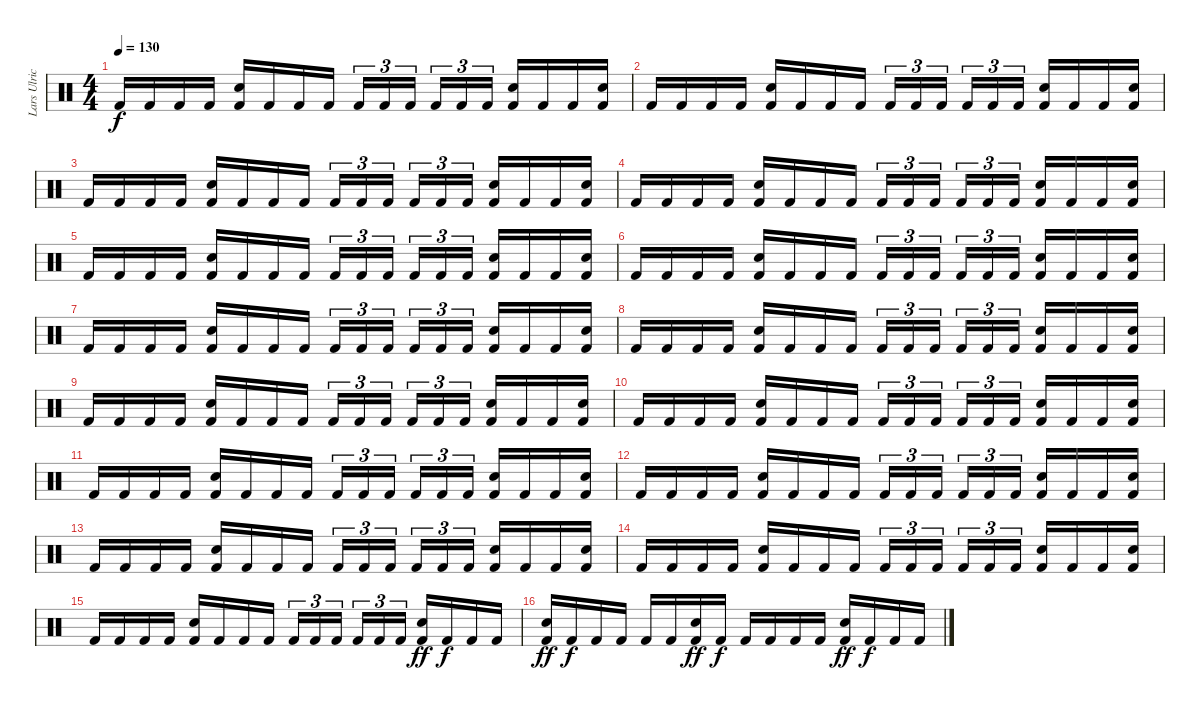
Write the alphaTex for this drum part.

\track ("Lars Ulrich" "Lars Ulric") {instrument percussion}
\staff {score}
\articulation defaults
\ts (4 4)
\tempo 130
\clef neutral
\ks c "Kick (hit) 2".16{dy f} "Kick (hit) 2".16 "Kick (hit) 2".16 "Kick (hit) 2".16
("Kick (hit) 2" "Electric Snare (hit)").16 "Kick (hit) 2".16 "Kick (hit) 2".16 "Kick (hit) 2".16 "Kick (hit) 2".16{tu (3 2)} "Kick (hit) 2".16{tu (3 2)} "Kick (hit) 2".16{tu (3 2) beam splitsecondary} "Kick (hit) 2".16{tu (3 2)} "Kick (hit) 2".16{tu (3 2)} "Kick (hit) 2".16{tu (3 2)} ("Kick (hit) 2" "Electric Snare (hit)").16 "Kick (hit) 2".16 "Kick (hit) 2".16 ("Kick (hit) 2" "Electric Snare (hit)").16 |
"Kick (hit) 2".16 "Kick (hit) 2".16 "Kick (hit) 2".16 "Kick (hit) 2".16 ("Kick (hit) 2" "Electric Snare (hit)").16 "Kick (hit) 2".16 "Kick (hit) 2".16 "Kick (hit) 2".16 "Kick (hit) 2".16{tu (3 2)} "Kick (hit) 2".16{tu (3 2)} "Kick (hit) 2".16{tu (3 2) beam splitsecondary} "Kick (hit) 2".16{tu (3 2)} "Kick (hit) 2".16{tu (3 2)} "Kick (hit) 2".16{tu (3 2)} ("Kick (hit) 2" "Electric Snare (hit)").16 "Kick (hit) 2".16 "Kick (hit) 2".16 ("Kick (hit) 2" "Electric Snare (hit)").16 |
"Kick (hit) 2".16 "Kick (hit) 2".16 "Kick (hit) 2".16 "Kick (hit) 2".16 ("Kick (hit) 2" "Electric Snare (hit)").16 "Kick (hit) 2".16 "Kick (hit) 2".16 "Kick (hit) 2".16 "Kick (hit) 2".16{tu (3 2)} "Kick (hit) 2".16{tu (3 2)} "Kick (hit) 2".16{tu (3 2) beam splitsecondary} "Kick (hit) 2".16{tu (3 2)} "Kick (hit) 2".16{tu (3 2)} "Kick (hit) 2".16{tu (3 2)} ("Kick (hit) 2" "Electric Snare (hit)").16 "Kick (hit) 2".16 "Kick (hit) 2".16 ("Kick (hit) 2" "Electric Snare (hit)").16 |
"Kick (hit) 2".16 "Kick (hit) 2".16 "Kick (hit) 2".16 "Kick (hit) 2".16 ("Kick (hit) 2" "Electric Snare (hit)").16 "Kick (hit) 2".16 "Kick (hit) 2".16 "Kick (hit) 2".16 "Kick (hit) 2".16{tu (3 2)} "Kick (hit) 2".16{tu (3 2)} "Kick (hit) 2".16{tu (3 2) beam splitsecondary} "Kick (hit) 2".16{tu (3 2)} "Kick (hit) 2".16{tu (3 2)} "Kick (hit) 2".16{tu (3 2)} ("Kick (hit) 2" "Electric Snare (hit)").16 "Kick (hit) 2".16 "Kick (hit) 2".16 ("Kick (hit) 2" "Electric Snare (hit)").16 |
"Kick (hit) 2".16 "Kick (hit) 2".16 "Kick (hit) 2".16 "Kick (hit) 2".16 ("Kick (hit) 2" "Electric Snare (hit)").16 "Kick (hit) 2".16 "Kick (hit) 2".16 "Kick (hit) 2".16 "Kick (hit) 2".16{tu (3 2)} "Kick (hit) 2".16{tu (3 2)} "Kick (hit) 2".16{tu (3 2) beam splitsecondary} "Kick (hit) 2".16{tu (3 2)} "Kick (hit) 2".16{tu (3 2)} "Kick (hit) 2".16{tu (3 2)} ("Kick (hit) 2" "Electric Snare (hit)").16 "Kick (hit) 2".16 "Kick (hit) 2".16 ("Kick (hit) 2" "Electric Snare (hit)").16 |
"Kick (hit) 2".16 "Kick (hit) 2".16 "Kick (hit) 2".16 "Kick (hit) 2".16 ("Kick (hit) 2" "Electric Snare (hit)").16 "Kick (hit) 2".16 "Kick (hit) 2".16 "Kick (hit) 2".16 "Kick (hit) 2".16{tu (3 2)} "Kick (hit) 2".16{tu (3 2)} "Kick (hit) 2".16{tu (3 2) beam splitsecondary} "Kick (hit) 2".16{tu (3 2)} "Kick (hit) 2".16{tu (3 2)} "Kick (hit) 2".16{tu (3 2)} ("Kick (hit) 2" "Electric Snare (hit)").16 "Kick (hit) 2".16 "Kick (hit) 2".16 ("Kick (hit) 2" "Electric Snare (hit)").16 |
"Kick (hit) 2".16 "Kick (hit) 2".16 "Kick (hit) 2".16 "Kick (hit) 2".16 ("Kick (hit) 2" "Electric Snare (hit)").16 "Kick (hit) 2".16 "Kick (hit) 2".16 "Kick (hit) 2".16 "Kick (hit) 2".16{tu (3 2)} "Kick (hit) 2".16{tu (3 2)} "Kick (hit) 2".16{tu (3 2) beam splitsecondary} "Kick (hit) 2".16{tu (3 2)} "Kick (hit) 2".16{tu (3 2)} "Kick (hit) 2".16{tu (3 2)} ("Kick (hit) 2" "Electric Snare (hit)").16 "Kick (hit) 2".16 "Kick (hit) 2".16 ("Kick (hit) 2" "Electric Snare (hit)").16 |
"Kick (hit) 2".16 "Kick (hit) 2".16 "Kick (hit) 2".16 "Kick (hit) 2".16 ("Kick (hit) 2" "Electric Snare (hit)").16 "Kick (hit) 2".16 "Kick (hit) 2".16 "Kick (hit) 2".16 "Kick (hit) 2".16{tu (3 2)} "Kick (hit) 2".16{tu (3 2)} "Kick (hit) 2".16{tu (3 2) beam splitsecondary} "Kick (hit) 2".16{tu (3 2)} "Kick (hit) 2".16{tu (3 2)} "Kick (hit) 2".16{tu (3 2)} ("Kick (hit) 2" "Electric Snare (hit)").16 "Kick (hit) 2".16 "Kick (hit) 2".16 ("Kick (hit) 2" "Electric Snare (hit)").16 |
"Kick (hit) 2".16 "Kick (hit) 2".16 "Kick (hit) 2".16 "Kick (hit) 2".16 ("Kick (hit) 2" "Electric Snare (hit)").16 "Kick (hit) 2".16 "Kick (hit) 2".16 "Kick (hit) 2".16 "Kick (hit) 2".16{tu (3 2)} "Kick (hit) 2".16{tu (3 2)} "Kick (hit) 2".16{tu (3 2) beam splitsecondary} "Kick (hit) 2".16{tu (3 2)} "Kick (hit) 2".16{tu (3 2)} "Kick (hit) 2".16{tu (3 2)} ("Kick (hit) 2" "Electric Snare (hit)").16 "Kick (hit) 2".16 "Kick (hit) 2".16 ("Kick (hit) 2" "Electric Snare (hit)").16 |
"Kick (hit) 2".16 "Kick (hit) 2".16 "Kick (hit) 2".16 "Kick (hit) 2".16 ("Kick (hit) 2" "Electric Snare (hit)").16 "Kick (hit) 2".16 "Kick (hit) 2".16 "Kick (hit) 2".16 "Kick (hit) 2".16{tu (3 2)} "Kick (hit) 2".16{tu (3 2)} "Kick (hit) 2".16{tu (3 2) beam splitsecondary} "Kick (hit) 2".16{tu (3 2)} "Kick (hit) 2".16{tu (3 2)} "Kick (hit) 2".16{tu (3 2)} ("Kick (hit) 2" "Electric Snare (hit)").16 "Kick (hit) 2".16 "Kick (hit) 2".16 ("Kick (hit) 2" "Electric Snare (hit)").16 |
"Kick (hit) 2".16 "Kick (hit) 2".16 "Kick (hit) 2".16 "Kick (hit) 2".16 ("Kick (hit) 2" "Electric Snare (hit)").16 "Kick (hit) 2".16 "Kick (hit) 2".16 "Kick (hit) 2".16 "Kick (hit) 2".16{tu (3 2)} "Kick (hit) 2".16{tu (3 2)} "Kick (hit) 2".16{tu (3 2) beam splitsecondary} "Kick (hit) 2".16{tu (3 2)} "Kick (hit) 2".16{tu (3 2)} "Kick (hit) 2".16{tu (3 2)} ("Kick (hit) 2" "Electric Snare (hit)").16 "Kick (hit) 2".16 "Kick (hit) 2".16 ("Kick (hit) 2" "Electric Snare (hit)").16 |
"Kick (hit) 2".16 "Kick (hit) 2".16 "Kick (hit) 2".16 "Kick (hit) 2".16 ("Kick (hit) 2" "Electric Snare (hit)").16 "Kick (hit) 2".16 "Kick (hit) 2".16 "Kick (hit) 2".16 "Kick (hit) 2".16{tu (3 2)} "Kick (hit) 2".16{tu (3 2)} "Kick (hit) 2".16{tu (3 2) beam splitsecondary} "Kick (hit) 2".16{tu (3 2)} "Kick (hit) 2".16{tu (3 2)} "Kick (hit) 2".16{tu (3 2)} ("Kick (hit) 2" "Electric Snare (hit)").16 "Kick (hit) 2".16 "Kick (hit) 2".16 ("Kick (hit) 2" "Electric Snare (hit)").16 |
"Kick (hit) 2".16 "Kick (hit) 2".16 "Kick (hit) 2".16 "Kick (hit) 2".16 ("Kick (hit) 2" "Electric Snare (hit)").16 "Kick (hit) 2".16 "Kick (hit) 2".16 "Kick (hit) 2".16 "Kick (hit) 2".16{tu (3 2)} "Kick (hit) 2".16{tu (3 2)} "Kick (hit) 2".16{tu (3 2) beam splitsecondary} "Kick (hit) 2".16{tu (3 2)} "Kick (hit) 2".16{tu (3 2)} "Kick (hit) 2".16{tu (3 2)} ("Kick (hit) 2" "Electric Snare (hit)").16 "Kick (hit) 2".16 "Kick (hit) 2".16 ("Kick (hit) 2" "Electric Snare (hit)").16 |
"Kick (hit) 2".16 "Kick (hit) 2".16 "Kick (hit) 2".16 "Kick (hit) 2".16 ("Kick (hit) 2" "Electric Snare (hit)").16 "Kick (hit) 2".16 "Kick (hit) 2".16 "Kick (hit) 2".16 "Kick (hit) 2".16{tu (3 2)} "Kick (hit) 2".16{tu (3 2)} "Kick (hit) 2".16{tu (3 2) beam splitsecondary} "Kick (hit) 2".16{tu (3 2)} "Kick (hit) 2".16{tu (3 2)} "Kick (hit) 2".16{tu (3 2)} ("Kick (hit) 2" "Electric Snare (hit)").16 "Kick (hit) 2".16 "Kick (hit) 2".16 ("Kick (hit) 2" "Electric Snare (hit)").16 |
"Kick (hit) 2".16 "Kick (hit) 2".16 "Kick (hit) 2".16 "Kick (hit) 2".16 ("Kick (hit) 2" "Electric Snare (hit)").16 "Kick (hit) 2".16 "Kick (hit) 2".16 "Kick (hit) 2".16 "Kick (hit) 2".16{tu (3 2)} "Kick (hit) 2".16{tu (3 2)} "Kick (hit) 2".16{tu (3 2) beam splitsecondary} "Kick (hit) 2".16{tu (3 2)} "Kick (hit) 2".16{tu (3 2)} "Kick (hit) 2".16{tu (3 2)} ("Kick (hit) 2" "Electric Snare (hit)").16{dy ff} "Kick (hit) 2".16{dy f} "Kick (hit) 2".16 "Kick (hit) 2".16 |
("Kick (hit) 2" "Electric Snare (hit)").16{dy ff} "Kick (hit) 2".16{dy f} "Kick (hit) 2".16 "Kick (hit) 2".16 "Kick (hit) 2".16 "Kick (hit) 2".16 ("Kick (hit) 2" "Electric Snare (hit)").16{dy ff} "Kick (hit) 2".16{dy f} "Kick (hit) 2".16 "Kick (hit) 2".16 "Kick (hit) 2".16 "Kick (hit) 2".16 ("Kick (hit) 2" "Electric Snare (hit)").16{dy ff} "Kick (hit) 2".16{dy f} "Kick (hit) 2".16 "Kick (hit) 2".16
